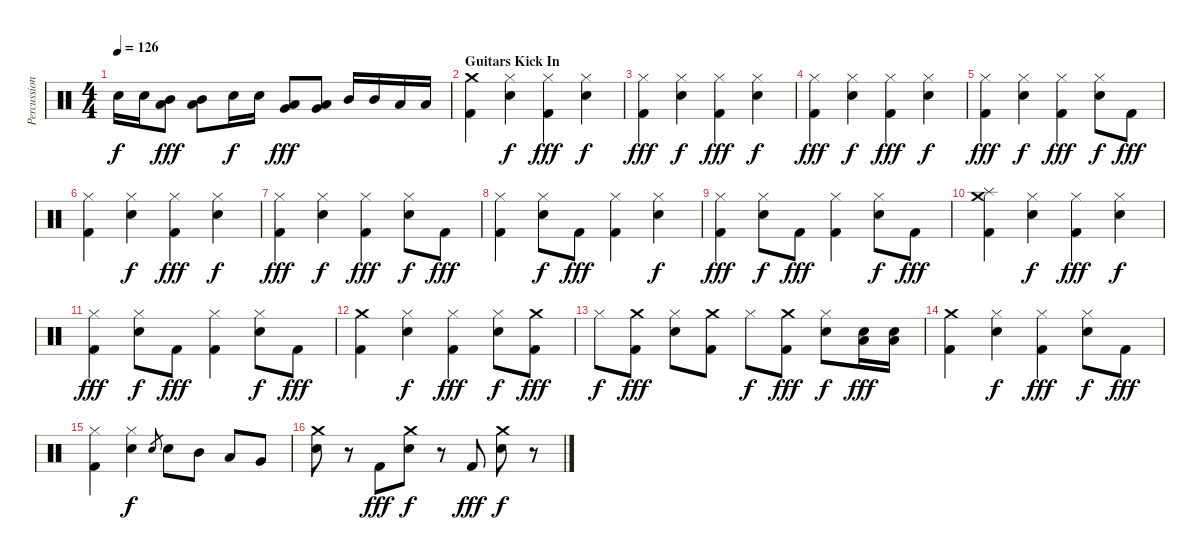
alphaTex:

\track ("Percussion" "Percussion") {instrument percussion}
\staff {score}
\articulation defaults
\ts (4 4)
\tempo 126
\clef neutral
\ks c "Electric Snare (hit)".16{dy f} "Electric Snare (hit)".16
("Low Tom (hit)" "Mid Tom (hit)").8{dy fff} ("Low Tom (hit)" "Mid Tom (hit)").8 "Electric Snare (hit)".16{dy f} "Electric Snare (hit)".16 ("Very Low Tom (hit)" "Low Tom (hit)").8{dy fff} ("Very Low Tom (hit)" "Low Tom (hit)").8 "Mid Tom (hit)".16 "Mid Tom (hit)".16 "Low Tom (hit)".16 "Low Tom (hit)".16 |
\section ("" "Guitars Kick In")
("Crash medium (hit)" "Kick (hit) 2").4 ("Hi-Hat (closed)" "Electric Snare (hit)").4{dy f} ("Hi-Hat (closed)" "Kick (hit) 2").4{dy fff} ("Hi-Hat (closed)" "Electric Snare (hit)").4{dy f} |
("Hi-Hat (closed)" "Kick (hit) 2").4{dy fff} ("Hi-Hat (closed)" "Electric Snare (hit)").4{dy f} ("Hi-Hat (closed)" "Kick (hit) 2").4{dy fff} ("Hi-Hat (closed)" "Electric Snare (hit)").4{dy f} |
("Hi-Hat (closed)" "Kick (hit) 2").4{dy fff} ("Hi-Hat (closed)" "Electric Snare (hit)").4{dy f} ("Hi-Hat (closed)" "Kick (hit) 2").4{dy fff} ("Hi-Hat (closed)" "Electric Snare (hit)").4{dy f} |
("Hi-Hat (closed)" "Kick (hit) 2").4{dy fff} ("Hi-Hat (closed)" "Electric Snare (hit)").4{dy f} ("Hi-Hat (closed)" "Kick (hit) 2").4{dy fff} ("Hi-Hat (closed)" "Electric Snare (hit)").8{dy f} "Kick (hit) 2".8{dy fff} |
("Hi-Hat (closed)" "Kick (hit) 2").4 ("Hi-Hat (closed)" "Electric Snare (hit)").4{dy f} ("Hi-Hat (closed)" "Kick (hit) 2").4{dy fff} ("Hi-Hat (closed)" "Electric Snare (hit)").4{dy f} |
("Hi-Hat (closed)" "Kick (hit) 2").4{dy fff} ("Hi-Hat (closed)" "Electric Snare (hit)").4{dy f} ("Hi-Hat (closed)" "Kick (hit) 2").4{dy fff} ("Hi-Hat (closed)" "Electric Snare (hit)").8{dy f} "Kick (hit) 2".8{dy fff} |
("Hi-Hat (closed)" "Kick (hit) 2").4 ("Hi-Hat (closed)" "Electric Snare (hit)").8{dy f} "Kick (hit) 2".8{dy fff} ("Hi-Hat (closed)" "Kick (hit) 2").4 ("Hi-Hat (closed)" "Electric Snare (hit)").4{dy f} |
("Hi-Hat (closed)" "Kick (hit) 2").4{dy fff} ("Hi-Hat (closed)" "Electric Snare (hit)").8{dy f} "Kick (hit) 2".8{dy fff} ("Hi-Hat (closed)" "Kick (hit) 2").4 ("Hi-Hat (closed)" "Electric Snare (hit)").8{dy f} "Kick (hit) 2".8{dy fff} |
("Crash medium (hit)" "Splash (hit)" "Kick (hit) 2").4 ("Hi-Hat (closed)" "Electric Snare (hit)").4{dy f} ("Hi-Hat (closed)" "Kick (hit) 2").4{dy fff} ("Hi-Hat (closed)" "Electric Snare (hit)").4{dy f} |
("Hi-Hat (closed)" "Kick (hit) 2").4{dy fff} ("Hi-Hat (closed)" "Electric Snare (hit)").8{dy f} "Kick (hit) 2".8{dy fff} ("Hi-Hat (closed)" "Kick (hit) 2").4 ("Hi-Hat (closed)" "Electric Snare (hit)").8{dy f} "Kick (hit) 2".8{dy fff} |
("Crash medium (hit)" "Kick (hit) 2").4 ("Hi-Hat (closed)" "Electric Snare (hit)").4{dy f} ("Hi-Hat (closed)" "Kick (hit) 2").4{dy fff} ("Hi-Hat (closed)" "Electric Snare (hit)").8{dy f} ("Crash medium (hit)" "Kick (hit) 2").8{dy fff} |
"Hi-Hat (closed)".8{dy f} ("Crash medium (hit)" "Kick (hit) 2").8{dy fff} ("Hi-Hat (closed)" "Electric Snare (hit)").8 ("Crash medium (hit)" "Kick (hit) 2").8 "Hi-Hat (closed)".8{dy f} ("Crash medium (hit)" "Kick (hit) 2").8{dy fff} ("Hi-Hat (closed)" "Electric Snare (hit)").8{dy f} ("Low Tom (hit)" "Electric Snare (hit)").16{dy fff} ("Low Tom (hit)" "Electric Snare (hit)").16 |
("Crash medium (hit)" "Kick (hit) 2").4 ("Hi-Hat (closed)" "Electric Snare (hit)").4{dy f} ("Hi-Hat (closed)" "Kick (hit) 2").4{dy fff} ("Hi-Hat (closed)" "Electric Snare (hit)").8{dy f} "Kick (hit) 2".8{dy fff} |
("Hi-Hat (closed)" "Kick (hit) 2").4 ("Hi-Hat (closed)" "Electric Snare (hit)").4{dy f} "Electric Snare (hit)".8{gr} "Electric Snare (hit)".8 "Mid Tom (hit)".8 "Low Tom (hit)".8 "Very Low Tom (hit)".8 |
("Crash medium (hit)" "Electric Snare (hit)").8 r.8 "Kick (hit) 2".8{dy fff} ("Crash medium (hit)" "Electric Snare (hit)").8{dy f} r.8 "Kick (hit) 2".8{dy fff} ("Crash medium (hit)" "Electric Snare (hit)").8{dy f} r.8
